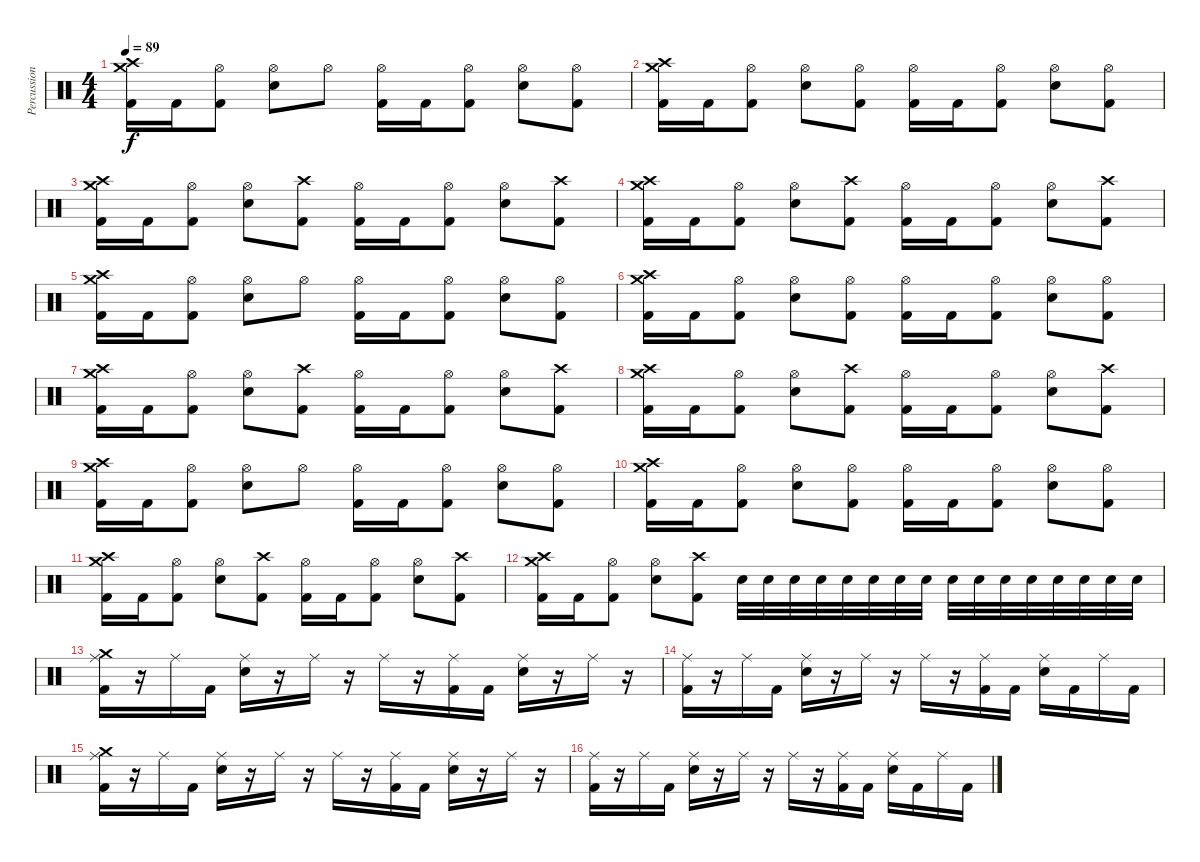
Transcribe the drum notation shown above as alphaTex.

\track ("Percussions" "Percussion") {instrument percussion}
\staff {score}
\articulation defaults
\ts (4 4)
\tempo 89
\clef neutral
\ks c
("Crash high (hit)" "Crash medium (hit)" "Kick (hit) 2").16{dy f} "Kick (hit) 2".16 ("Hi-Hat (open)" "Kick (hit) 2").8 ("Hi-Hat (open)" "Snare (hit) 2").8 "Hi-Hat (open)".8 ("Hi-Hat (open)" "Kick (hit) 2").16 "Kick (hit) 2".16 ("Hi-Hat (open)" "Kick (hit) 2").8 ("Hi-Hat (open)" "Snare (hit) 2").8 ("Hi-Hat (open)" "Kick (hit) 2").8 |
("Crash high (hit)" "Crash medium (hit)" "Kick (hit) 2").16 "Kick (hit) 2".16 ("Hi-Hat (open)" "Kick (hit) 2").8 ("Hi-Hat (open)" "Snare (hit) 2").8 ("Hi-Hat (open)" "Kick (hit) 2").8 ("Hi-Hat (open)" "Kick (hit) 2").16 "Kick (hit) 2".16 ("Hi-Hat (open)" "Kick (hit) 2").8 ("Hi-Hat (open)" "Snare (hit) 2").8 ("Hi-Hat (open)" "Kick (hit) 2").8 |
("Crash high (hit)" "Crash medium (hit)" "Kick (hit) 2").16 "Kick (hit) 2".16 ("Hi-Hat (open)" "Kick (hit) 2").8 ("Hi-Hat (open)" "Snare (hit) 2").8 ("Crash high (hit)" "Kick (hit) 2").8 ("Hi-Hat (open)" "Kick (hit) 2").16 "Kick (hit) 2".16 ("Hi-Hat (open)" "Kick (hit) 2").8 ("Hi-Hat (open)" "Snare (hit) 2").8 ("Crash high (hit)" "Kick (hit) 2").8 |
("Crash high (hit)" "Crash medium (hit)" "Kick (hit) 2").16 "Kick (hit) 2".16 ("Hi-Hat (open)" "Kick (hit) 2").8 ("Hi-Hat (open)" "Snare (hit) 2").8 ("Crash high (hit)" "Kick (hit) 2").8 ("Hi-Hat (open)" "Kick (hit) 2").16 "Kick (hit) 2".16 ("Hi-Hat (open)" "Kick (hit) 2").8 ("Hi-Hat (open)" "Snare (hit) 2").8 ("Crash high (hit)" "Kick (hit) 2").8 |
("Crash high (hit)" "Crash medium (hit)" "Kick (hit) 2").16 "Kick (hit) 2".16 ("Hi-Hat (open)" "Kick (hit) 2").8 ("Hi-Hat (open)" "Snare (hit) 2").8 "Hi-Hat (open)".8 ("Hi-Hat (open)" "Kick (hit) 2").16 "Kick (hit) 2".16 ("Hi-Hat (open)" "Kick (hit) 2").8 ("Hi-Hat (open)" "Snare (hit) 2").8 ("Hi-Hat (open)" "Kick (hit) 2").8 |
("Crash high (hit)" "Crash medium (hit)" "Kick (hit) 2").16 "Kick (hit) 2".16 ("Hi-Hat (open)" "Kick (hit) 2").8 ("Hi-Hat (open)" "Snare (hit) 2").8 ("Hi-Hat (open)" "Kick (hit) 2").8 ("Hi-Hat (open)" "Kick (hit) 2").16 "Kick (hit) 2".16 ("Hi-Hat (open)" "Kick (hit) 2").8 ("Hi-Hat (open)" "Snare (hit) 2").8 ("Hi-Hat (open)" "Kick (hit) 2").8 |
("Crash high (hit)" "Crash medium (hit)" "Kick (hit) 2").16 "Kick (hit) 2".16 ("Hi-Hat (open)" "Kick (hit) 2").8 ("Hi-Hat (open)" "Snare (hit) 2").8 ("Crash high (hit)" "Kick (hit) 2").8 ("Hi-Hat (open)" "Kick (hit) 2").16 "Kick (hit) 2".16 ("Hi-Hat (open)" "Kick (hit) 2").8 ("Hi-Hat (open)" "Snare (hit) 2").8 ("Crash high (hit)" "Kick (hit) 2").8 |
("Crash high (hit)" "Crash medium (hit)" "Kick (hit) 2").16 "Kick (hit) 2".16 ("Hi-Hat (open)" "Kick (hit) 2").8 ("Hi-Hat (open)" "Snare (hit) 2").8 ("Crash high (hit)" "Kick (hit) 2").8 ("Hi-Hat (open)" "Kick (hit) 2").16 "Kick (hit) 2".16 ("Hi-Hat (open)" "Kick (hit) 2").8 ("Hi-Hat (open)" "Snare (hit) 2").8 ("Crash high (hit)" "Kick (hit) 2").8 |
("Crash high (hit)" "Crash medium (hit)" "Kick (hit) 2").16 "Kick (hit) 2".16 ("Hi-Hat (open)" "Kick (hit) 2").8 ("Hi-Hat (open)" "Snare (hit) 2").8 "Hi-Hat (open)".8 ("Hi-Hat (open)" "Kick (hit) 2").16 "Kick (hit) 2".16 ("Hi-Hat (open)" "Kick (hit) 2").8 ("Hi-Hat (open)" "Snare (hit) 2").8 ("Hi-Hat (open)" "Kick (hit) 2").8 |
("Crash high (hit)" "Crash medium (hit)" "Kick (hit) 2").16 "Kick (hit) 2".16 ("Hi-Hat (open)" "Kick (hit) 2").8 ("Hi-Hat (open)" "Snare (hit) 2").8 ("Hi-Hat (open)" "Kick (hit) 2").8 ("Hi-Hat (open)" "Kick (hit) 2").16 "Kick (hit) 2".16 ("Hi-Hat (open)" "Kick (hit) 2").8 ("Hi-Hat (open)" "Snare (hit) 2").8 ("Hi-Hat (open)" "Kick (hit) 2").8 |
("Crash high (hit)" "Crash medium (hit)" "Kick (hit) 2").16 "Kick (hit) 2".16 ("Hi-Hat (open)" "Kick (hit) 2").8 ("Hi-Hat (open)" "Snare (hit) 2").8 ("Crash high (hit)" "Kick (hit) 2").8 ("Hi-Hat (open)" "Kick (hit) 2").16 "Kick (hit) 2".16 ("Hi-Hat (open)" "Kick (hit) 2").8 ("Hi-Hat (open)" "Snare (hit) 2").8 ("Crash high (hit)" "Kick (hit) 2").8 |
("Crash high (hit)" "Crash medium (hit)" "Kick (hit) 2").16 "Kick (hit) 2".16 ("Hi-Hat (open)" "Kick (hit) 2").8 ("Hi-Hat (open)" "Snare (hit) 2").8 ("Crash high (hit)" "Kick (hit) 2").8 "Electric Snare (hit)".32 "Electric Snare (hit)".32 "Electric Snare (hit)".32 "Electric Snare (hit)".32 "Electric Snare (hit)".32 "Electric Snare (hit)".32 "Electric Snare (hit)".32 "Electric Snare (hit)".32 "Electric Snare (hit)".32 "Electric Snare (hit)".32 "Electric Snare (hit)".32 "Electric Snare (hit)".32 "Electric Snare (hit)".32 "Electric Snare (hit)".32 "Electric Snare (hit)".32 "Electric Snare (hit)".32 |
("Crash medium (hit)" "Ride (middle)" "Kick (hit) 2").16 r.16 "Ride (middle)".16 "Kick (hit) 2".16 ("Ride (middle)" "Snare (hit) 2").16 r.16 "Ride (middle)".16 r.16 "Ride (middle)".16 r.16 ("Ride (middle)" "Kick (hit) 2").16 "Kick (hit) 2".16 ("Ride (middle)" "Snare (hit) 2").16 r.16 "Ride (middle)".16 r.16 |
("Ride (middle)" "Kick (hit) 2").16 r.16 "Ride (middle)".16 "Kick (hit) 2".16 ("Ride (middle)" "Snare (hit) 2").16 r.16 "Ride (middle)".16 r.16 "Ride (middle)".16 r.16 ("Ride (middle)" "Kick (hit) 2").16 "Kick (hit) 2".16 ("Ride (middle)" "Snare (hit) 2").16 "Kick (hit) 2".16 "Ride (middle)".16 "Kick (hit) 2".16 |
("Crash medium (hit)" "Ride (middle)" "Kick (hit) 2").16 r.16 "Ride (middle)".16 "Kick (hit) 2".16 ("Ride (middle)" "Snare (hit) 2").16 r.16 "Ride (middle)".16 r.16 "Ride (middle)".16 r.16 ("Ride (middle)" "Kick (hit) 2").16 "Kick (hit) 2".16 ("Ride (middle)" "Snare (hit) 2").16 r.16 "Ride (middle)".16 r.16 |
("Ride (middle)" "Kick (hit) 2").16 r.16 "Ride (middle)".16 "Kick (hit) 2".16 ("Ride (middle)" "Snare (hit) 2").16 r.16 "Ride (middle)".16 r.16 "Ride (middle)".16 r.16 ("Ride (middle)" "Kick (hit) 2").16 "Kick (hit) 2".16 ("Ride (middle)" "Snare (hit) 2").16 "Kick (hit) 2".16 "Ride (middle)".16 "Kick (hit) 2".16
